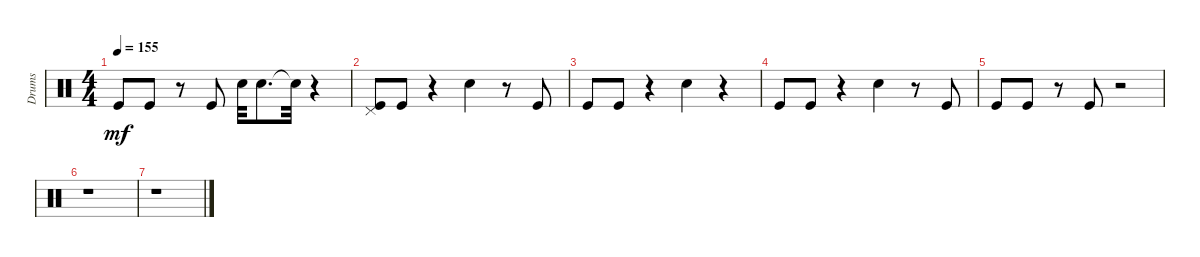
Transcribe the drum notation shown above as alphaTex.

\track ("Drums" "Drums") {instrument percussion}
\staff {score}
\articulation defaults
\ts (4 4)
\tempo 155
\clef neutral
\ks c "Kick (hit)".8{dy mf} "Kick (hit)".8
r.8 "Kick (hit)".8 "Snare (hit) 2".32 "Snare (hit) 2".8{d} "Snare (hit) 2"{t}.32 r.4 |
("Kick (hit)" "Pedal Hi-Hat (hit)").8 "Kick (hit)".8 r.4 "Snare (hit) 2".4 r.8 "Kick (hit)".8 |
"Kick (hit)".8 "Kick (hit)".8 r.4 "Snare (hit) 2".4 r.4 |
"Kick (hit)".8 "Kick (hit)".8 r.4 "Snare (hit) 2".4 r.8 "Kick (hit)".8 |
"Kick (hit)".8 "Kick (hit)".8 r.8 "Kick (hit)".8 r.2 |
r.1 |
r.1
